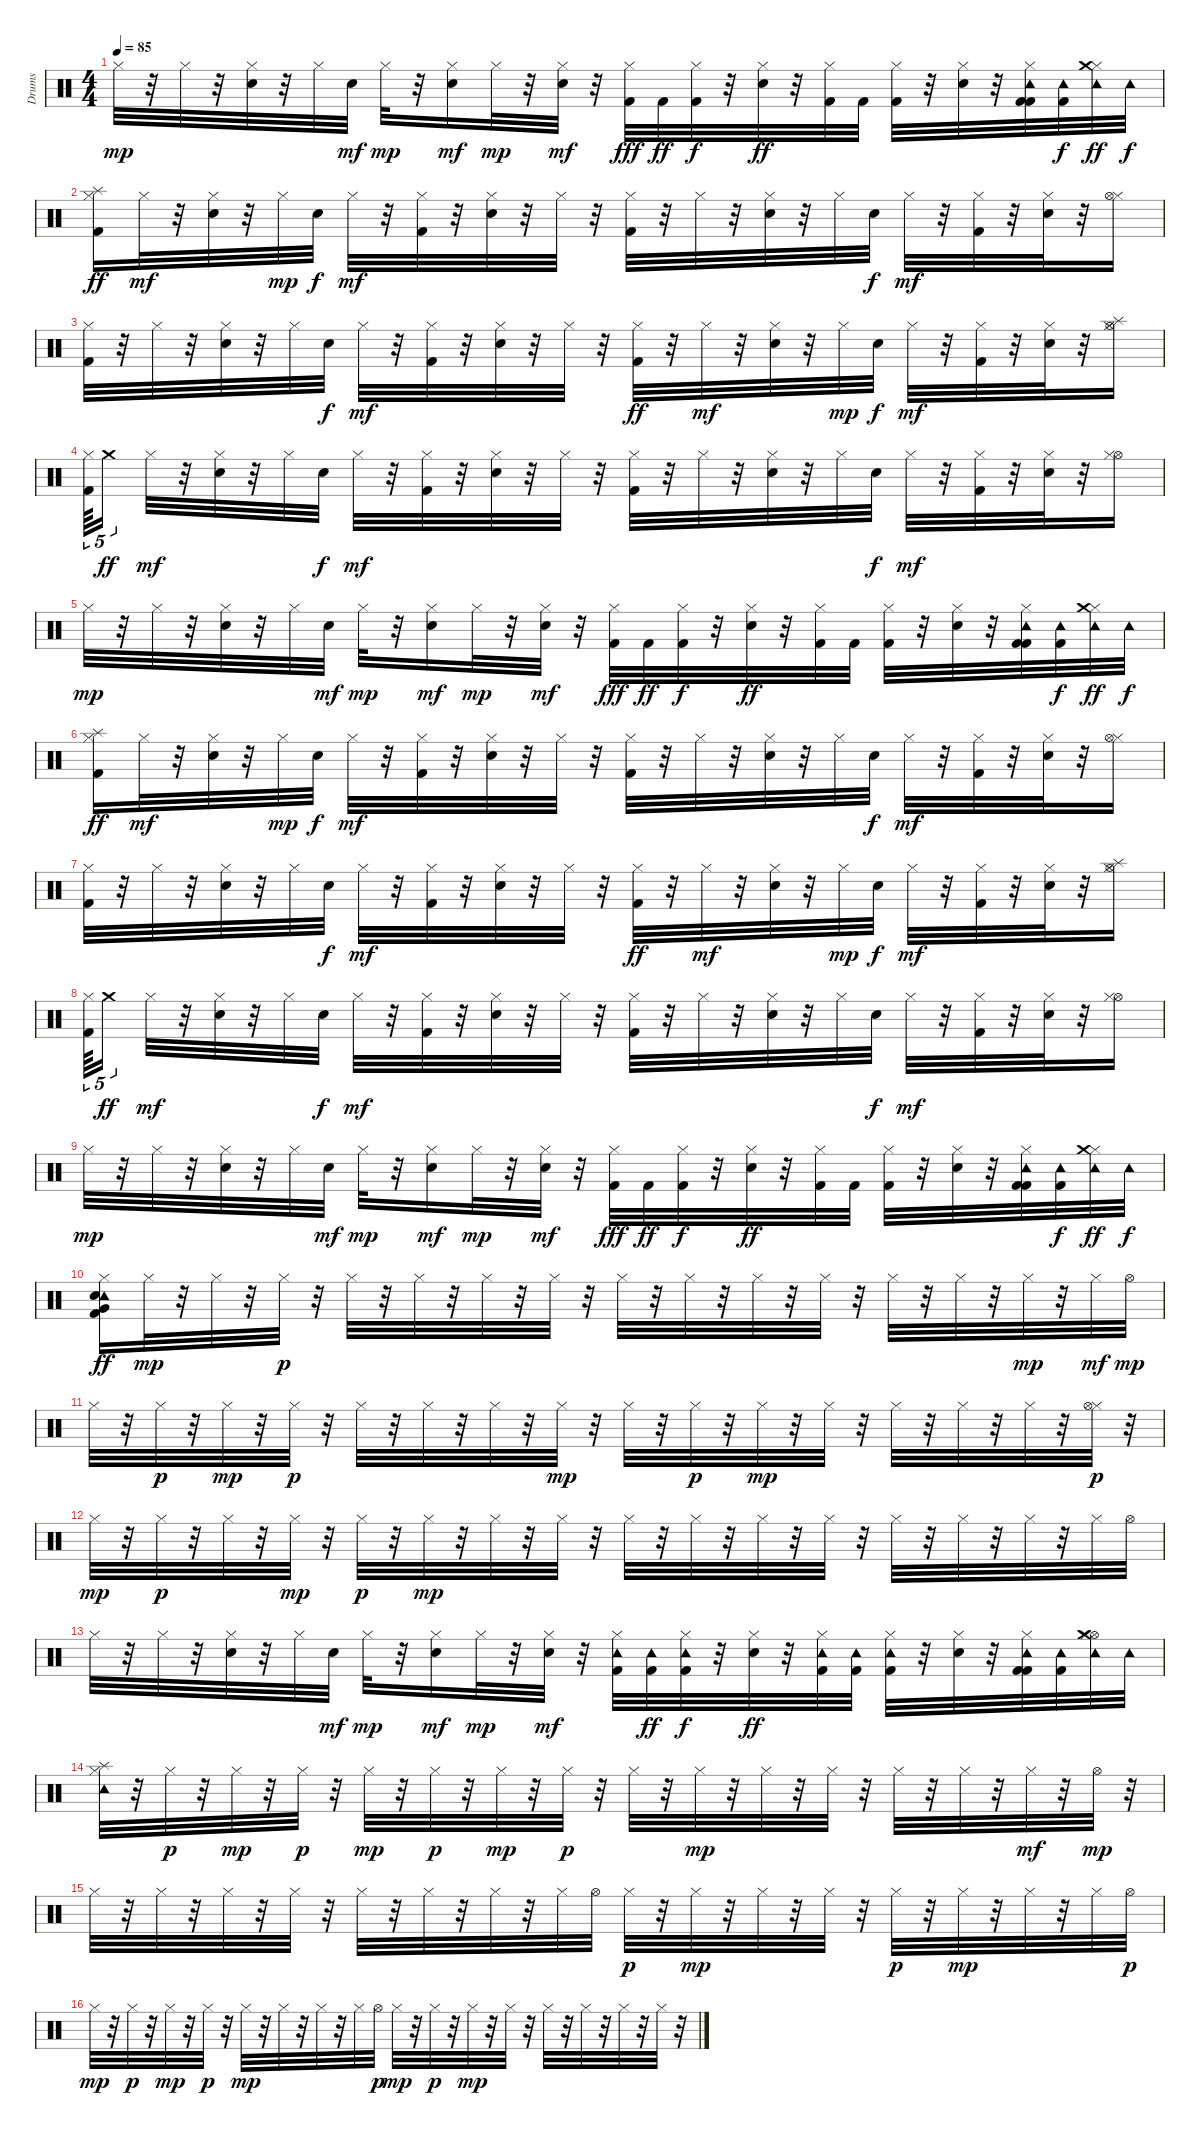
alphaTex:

\track ("Drums" "Drums") {instrument percussion}
\staff {score}
\articulation defaults
\ts (4 4)
\tempo 85
\clef neutral
\ks c "Hi-Hat (closed)".32{dy mp}
r.32 "Hi-Hat (closed)".32 r.32 ("Hi-Hat (closed)" "Electric Snare (hit)").32 r.32 "Hi-Hat (closed)".32 "Electric Snare (hit)".32{dy mf} "Hi-Hat (closed)".32{dy mp} r.32 ("Electric Snare (hit)" "Hi-Hat (closed)").16{dy mf} "Hi-Hat (closed)".32{dy mp} r.32 ("Electric Snare (hit)" "Hi-Hat (closed)").32{dy mf} r.32 ("Hi-Hat (closed)" "Kick (hit) 2").32{dy fff} "Kick (hit) 2".32{dy ff} ("Hi-Hat (closed)" "Kick (hit) 2").32{dy f} r.32 ("Hi-Hat (closed)" "Electric Snare (hit)").32{dy ff} r.32 ("Hi-Hat (closed)" "Kick (hit) 2").32 "Kick (hit) 2".32 ("Hi-Hat (closed)" "Kick (hit) 2").32 r.32 ("Hi-Hat (closed)" "Electric Snare (hit)").32 r.32 ("Hi-Hat (closed)" "Kick (hit) 2" "Kick (hit) 2" "Tambourine (hit)").32 ("Kick (hit) 2" "Tambourine (hit)").32{dy f} ("Hi-Hat (closed)" "Tambourine (hit)" "Crash medium (hit)").32{dy ff} "Tambourine (hit)".32{dy f} |
("Splash (hit)" "Kick (hit) 2" "Hi-Hat (closed)").16{dy ff} "Hi-Hat (closed)".32{dy mf} r.32 ("Hi-Hat (closed)" "Electric Snare (hit)").32 r.32 "Hi-Hat (closed)".32{dy mp} "Electric Snare (hit)".32{dy f} "Hi-Hat (closed)".32{dy mf} r.32 ("Kick (hit) 2" "Hi-Hat (closed)").32 r.32 ("Electric Snare (hit)" "Hi-Hat (closed)").32 r.32 "Hi-Hat (closed)".32 r.32 ("Kick (hit) 2" "Hi-Hat (closed)").32 r.32 "Hi-Hat (closed)".32 r.32 ("Electric Snare (hit)" "Hi-Hat (closed)").32 r.32 "Hi-Hat (closed)".32 "Electric Snare (hit)".32{dy f} "Hi-Hat (closed)".32{dy mf} r.32 ("Kick (hit) 2" "Hi-Hat (closed)").32 r.32 ("Electric Snare (hit)" "Hi-Hat (closed)").32 r.32 ("Hi-Hat (closed)" "Hi-Hat (open)").16 |
("Kick (hit) 2" "Hi-Hat (closed)").32 r.32 "Hi-Hat (closed)".32 r.32 ("Electric Snare (hit)" "Hi-Hat (closed)").32 r.32 "Hi-Hat (closed)".32 "Electric Snare (hit)".32{dy f} "Hi-Hat (closed)".32{dy mf} r.32 ("Kick (hit) 2" "Hi-Hat (closed)").32 r.32 ("Hi-Hat (closed)" "Electric Snare (hit)").32 r.32 "Hi-Hat (closed)".32 r.32 ("Hi-Hat (closed)" "Kick (hit) 2").32{dy ff} r.32 "Hi-Hat (closed)".32{dy mf} r.32 ("Electric Snare (hit)" "Hi-Hat (closed)").32 r.32 "Hi-Hat (closed)".32{dy mp} "Electric Snare (hit)".32{dy f} "Hi-Hat (closed)".32{dy mf} r.32 ("Kick (hit) 2" "Hi-Hat (closed)").32 r.32 ("Electric Snare (hit)" "Hi-Hat (closed)").32 r.32 ("Hi-Hat (open)" "Hi-Hat (closed)" "Splash (hit)").16 |
("Kick (hit) 2" "Hi-Hat (closed)").64{tu (5 4)} "Crash medium (hit)".16{tu (5 4) dy ff beam splitsecondary} "Hi-Hat (closed)".32{dy mf} r.32 ("Electric Snare (hit)" "Hi-Hat (closed)").32 r.32 "Hi-Hat (closed)".32 "Electric Snare (hit)".32{dy f} "Hi-Hat (closed)".32{dy mf} r.32 ("Kick (hit) 2" "Hi-Hat (closed)").32 r.32 ("Electric Snare (hit)" "Hi-Hat (closed)").32 r.32 "Hi-Hat (closed)".32 r.32 ("Kick (hit) 2" "Hi-Hat (closed)").32 r.32 "Hi-Hat (closed)".32 r.32 ("Electric Snare (hit)" "Hi-Hat (closed)").32 r.32 "Hi-Hat (closed)".32 "Electric Snare (hit)".32{dy f} "Hi-Hat (closed)".32{dy mf} r.32 ("Kick (hit) 2" "Hi-Hat (closed)").32 r.32 ("Electric Snare (hit)" "Hi-Hat (closed)").32 r.32 ("Hi-Hat (open)" "Hi-Hat (closed)").16 |
"Hi-Hat (closed)".32{dy mp} r.32 "Hi-Hat (closed)".32 r.32 ("Hi-Hat (closed)" "Electric Snare (hit)").32 r.32 "Hi-Hat (closed)".32 "Electric Snare (hit)".32{dy mf} "Hi-Hat (closed)".32{dy mp} r.32 ("Electric Snare (hit)" "Hi-Hat (closed)").16{dy mf} "Hi-Hat (closed)".32{dy mp} r.32 ("Electric Snare (hit)" "Hi-Hat (closed)").32{dy mf} r.32 ("Hi-Hat (closed)" "Kick (hit) 2").32{dy fff} "Kick (hit) 2".32{dy ff} ("Hi-Hat (closed)" "Kick (hit) 2").32{dy f} r.32 ("Hi-Hat (closed)" "Electric Snare (hit)").32{dy ff} r.32 ("Hi-Hat (closed)" "Kick (hit) 2").32 "Kick (hit) 2".32 ("Hi-Hat (closed)" "Kick (hit) 2").32 r.32 ("Hi-Hat (closed)" "Electric Snare (hit)").32 r.32 ("Hi-Hat (closed)" "Kick (hit) 2" "Kick (hit) 2" "Tambourine (hit)").32 ("Kick (hit) 2" "Tambourine (hit)").32{dy f} ("Hi-Hat (closed)" "Tambourine (hit)" "Crash medium (hit)").32{dy ff} "Tambourine (hit)".32{dy f} |
("Splash (hit)" "Kick (hit) 2" "Hi-Hat (closed)").16{dy ff} "Hi-Hat (closed)".32{dy mf} r.32 ("Hi-Hat (closed)" "Electric Snare (hit)").32 r.32 "Hi-Hat (closed)".32{dy mp} "Electric Snare (hit)".32{dy f} "Hi-Hat (closed)".32{dy mf} r.32 ("Kick (hit) 2" "Hi-Hat (closed)").32 r.32 ("Electric Snare (hit)" "Hi-Hat (closed)").32 r.32 "Hi-Hat (closed)".32 r.32 ("Kick (hit) 2" "Hi-Hat (closed)").32 r.32 "Hi-Hat (closed)".32 r.32 ("Electric Snare (hit)" "Hi-Hat (closed)").32 r.32 "Hi-Hat (closed)".32 "Electric Snare (hit)".32{dy f} "Hi-Hat (closed)".32{dy mf} r.32 ("Kick (hit) 2" "Hi-Hat (closed)").32 r.32 ("Electric Snare (hit)" "Hi-Hat (closed)").32 r.32 ("Hi-Hat (closed)" "Hi-Hat (open)").16 |
("Kick (hit) 2" "Hi-Hat (closed)").32 r.32 "Hi-Hat (closed)".32 r.32 ("Electric Snare (hit)" "Hi-Hat (closed)").32 r.32 "Hi-Hat (closed)".32 "Electric Snare (hit)".32{dy f} "Hi-Hat (closed)".32{dy mf} r.32 ("Kick (hit) 2" "Hi-Hat (closed)").32 r.32 ("Hi-Hat (closed)" "Electric Snare (hit)").32 r.32 "Hi-Hat (closed)".32 r.32 ("Hi-Hat (closed)" "Kick (hit) 2").32{dy ff} r.32 "Hi-Hat (closed)".32{dy mf} r.32 ("Electric Snare (hit)" "Hi-Hat (closed)").32 r.32 "Hi-Hat (closed)".32{dy mp} "Electric Snare (hit)".32{dy f} "Hi-Hat (closed)".32{dy mf} r.32 ("Kick (hit) 2" "Hi-Hat (closed)").32 r.32 ("Electric Snare (hit)" "Hi-Hat (closed)").32 r.32 ("Hi-Hat (open)" "Hi-Hat (closed)" "Splash (hit)").16 |
("Kick (hit) 2" "Hi-Hat (closed)").64{tu (5 4)} "Crash medium (hit)".16{tu (5 4) dy ff beam splitsecondary} "Hi-Hat (closed)".32{dy mf} r.32 ("Electric Snare (hit)" "Hi-Hat (closed)").32 r.32 "Hi-Hat (closed)".32 "Electric Snare (hit)".32{dy f} "Hi-Hat (closed)".32{dy mf} r.32 ("Kick (hit) 2" "Hi-Hat (closed)").32 r.32 ("Electric Snare (hit)" "Hi-Hat (closed)").32 r.32 "Hi-Hat (closed)".32 r.32 ("Kick (hit) 2" "Hi-Hat (closed)").32 r.32 "Hi-Hat (closed)".32 r.32 ("Electric Snare (hit)" "Hi-Hat (closed)").32 r.32 "Hi-Hat (closed)".32 "Electric Snare (hit)".32{dy f} "Hi-Hat (closed)".32{dy mf} r.32 ("Kick (hit) 2" "Hi-Hat (closed)").32 r.32 ("Electric Snare (hit)" "Hi-Hat (closed)").32 r.32 ("Hi-Hat (open)" "Hi-Hat (closed)").16 |
"Hi-Hat (closed)".32{dy mp} r.32 "Hi-Hat (closed)".32 r.32 ("Hi-Hat (closed)" "Electric Snare (hit)").32 r.32 "Hi-Hat (closed)".32 "Electric Snare (hit)".32{dy mf} "Hi-Hat (closed)".32{dy mp} r.32 ("Electric Snare (hit)" "Hi-Hat (closed)").16{dy mf} "Hi-Hat (closed)".32{dy mp} r.32 ("Electric Snare (hit)" "Hi-Hat (closed)").32{dy mf} r.32 ("Hi-Hat (closed)" "Kick (hit) 2").32{dy fff} "Kick (hit) 2".32{dy ff} ("Hi-Hat (closed)" "Kick (hit) 2").32{dy f} r.32 ("Hi-Hat (closed)" "Electric Snare (hit)").32{dy ff} r.32 ("Hi-Hat (closed)" "Kick (hit) 2").32 "Kick (hit) 2".32 ("Hi-Hat (closed)" "Kick (hit) 2").32 r.32 ("Hi-Hat (closed)" "Electric Snare (hit)").32 r.32 ("Hi-Hat (closed)" "Kick (hit) 2" "Kick (hit) 2" "Tambourine (hit)").32 ("Kick (hit) 2" "Tambourine (hit)").32{dy f} ("Hi-Hat (closed)" "Tambourine (hit)" "Crash medium (hit)").32{dy ff} "Tambourine (hit)".32{dy f} |
("Hi-Hat (closed)" "Tambourine (hit)" "Kick (hit) 2" "Very Low Tom (hit)" "Snare (hit) 2").16{dy ff} "Hi-Hat (closed)".32{dy mp} r.32 "Hi-Hat (closed)".32 r.32 "Hi-Hat (closed)".32{dy p} r.32 "Hi-Hat (closed)".32 r.32 "Hi-Hat (closed)".32 r.32 "Hi-Hat (closed)".32 r.32 "Hi-Hat (closed)".32 r.32 "Hi-Hat (closed)".32 r.32 "Hi-Hat (closed)".32 r.32 "Hi-Hat (closed)".32 r.32 "Hi-Hat (closed)".32 r.32 "Hi-Hat (closed)".32 r.32 "Hi-Hat (closed)".32 r.32 "Hi-Hat (closed)".32{dy mp} r.32 "Hi-Hat (closed)".32{dy mf} "Hi-Hat (open)".32{dy mp} |
"Hi-Hat (closed)".32 r.32 "Hi-Hat (closed)".32{dy p} r.32 "Hi-Hat (closed)".32{dy mp} r.32 "Hi-Hat (closed)".32{dy p} r.32 "Hi-Hat (closed)".32 r.32 "Hi-Hat (closed)".32 r.32 "Hi-Hat (closed)".32 r.32 "Hi-Hat (closed)".32{dy mp} r.32 "Hi-Hat (closed)".32 r.32 "Hi-Hat (closed)".32{dy p} r.32 "Hi-Hat (closed)".32{dy mp} r.32 "Hi-Hat (closed)".32 r.32 "Hi-Hat (closed)".32 r.32 "Hi-Hat (closed)".32 r.32 "Hi-Hat (closed)".32 r.32 ("Hi-Hat (closed)" "Hi-Hat (open)").32{dy p} r.32 |
"Hi-Hat (closed)".32{dy mp} r.32 "Hi-Hat (closed)".32{dy p} r.32 "Hi-Hat (closed)".32 r.32 "Hi-Hat (closed)".32{dy mp} r.32 "Hi-Hat (closed)".32{dy p} r.32 "Hi-Hat (closed)".32{dy mp} r.32 "Hi-Hat (closed)".32 r.32 "Hi-Hat (closed)".32 r.32 "Hi-Hat (closed)".32 r.32 "Hi-Hat (closed)".32 r.32 "Hi-Hat (closed)".32 r.32 "Hi-Hat (closed)".32 r.32 "Hi-Hat (closed)".32 r.32 "Hi-Hat (closed)".32 r.32 "Hi-Hat (closed)".32 r.32 "Hi-Hat (closed)".32 "Hi-Hat (open)".32 |
"Hi-Hat (closed)".32 r.32 "Hi-Hat (closed)".32 r.32 ("Hi-Hat (closed)" "Electric Snare (hit)").32 r.32 "Hi-Hat (closed)".32 "Electric Snare (hit)".32{dy mf} "Hi-Hat (closed)".32{dy mp} r.32 ("Electric Snare (hit)" "Hi-Hat (closed)").16{dy mf} "Hi-Hat (closed)".32{dy mp} r.32 ("Electric Snare (hit)" "Hi-Hat (closed)").32{dy mf} r.32 ("Hi-Hat (closed)" "Kick (hit) 2" "Tambourine (hit)").32 ("Kick (hit) 2" "Tambourine (hit)").32{dy ff} ("Hi-Hat (closed)" "Kick (hit) 2" "Tambourine (hit)").32{dy f} r.32 ("Hi-Hat (closed)" "Electric Snare (hit)").32{dy ff} r.32 ("Hi-Hat (closed)" "Kick (hit) 2" "Tambourine (hit)").32 ("Kick (hit) 2" "Tambourine (hit)").32 ("Hi-Hat (closed)" "Kick (hit) 2" "Tambourine (hit)").32 r.32 ("Hi-Hat (closed)" "Electric Snare (hit)").32 r.32 ("Hi-Hat (closed)" "Kick (hit) 2" "Kick (hit) 2" "Tambourine (hit)").32 ("Kick (hit) 2" "Tambourine (hit)").32 ("Hi-Hat (open)" "Hi-Hat (closed)" "Tambourine (hit)" "Crash medium (hit)").32 "Tambourine (hit)".32 |
("Hi-Hat (closed)" "Splash (hit)" "Tambourine (hit)").32 r.32 "Hi-Hat (closed)".32{dy p} r.32 "Hi-Hat (closed)".32{dy mp} r.32 "Hi-Hat (closed)".32{dy p} r.32 "Hi-Hat (closed)".32{dy mp} r.32 "Hi-Hat (closed)".32{dy p} r.32 "Hi-Hat (closed)".32{dy mp} r.32 "Hi-Hat (closed)".32{dy p} r.32 "Hi-Hat (closed)".32 r.32 "Hi-Hat (closed)".32{dy mp} r.32 "Hi-Hat (closed)".32 r.32 "Hi-Hat (closed)".32 r.32 "Hi-Hat (closed)".32 r.32 "Hi-Hat (closed)".32 r.32 "Hi-Hat (closed)".32{dy mf} r.32 "Hi-Hat (open)".32{dy mp} r.32 |
"Hi-Hat (closed)".32 r.32 "Hi-Hat (closed)".32 r.32 "Hi-Hat (closed)".32 r.32 "Hi-Hat (closed)".32 r.32 "Hi-Hat (closed)".32 r.32 "Hi-Hat (closed)".32 r.32 "Hi-Hat (closed)".32 r.32 "Hi-Hat (closed)".32 "Hi-Hat (open)".32 "Hi-Hat (closed)".32{dy p} r.32 "Hi-Hat (closed)".32{dy mp} r.32 "Hi-Hat (closed)".32 r.32 "Hi-Hat (closed)".32 r.32 "Hi-Hat (closed)".32{dy p} r.32 "Hi-Hat (closed)".32{dy mp} r.32 "Hi-Hat (closed)".32 r.32 "Hi-Hat (closed)".32 "Hi-Hat (open)".32{dy p} |
"Hi-Hat (closed)".32{dy mp} r.32 "Hi-Hat (closed)".32{dy p} r.32 "Hi-Hat (closed)".32{dy mp} r.32 "Hi-Hat (closed)".32{dy p} r.32 "Hi-Hat (closed)".32{dy mp} r.32 "Hi-Hat (closed)".32 r.32 "Hi-Hat (closed)".32 r.32 "Hi-Hat (closed)".32 "Hi-Hat (open)".32{dy p} "Hi-Hat (closed)".32{dy mp} r.32 "Hi-Hat (closed)".32{dy p} r.32 "Hi-Hat (closed)".32{dy mp} r.32 "Hi-Hat (closed)".32 r.32 "Hi-Hat (closed)".32 r.32 "Hi-Hat (closed)".32 r.32 "Hi-Hat (closed)".32 r.32 "Hi-Hat (closed)".32 r.32
